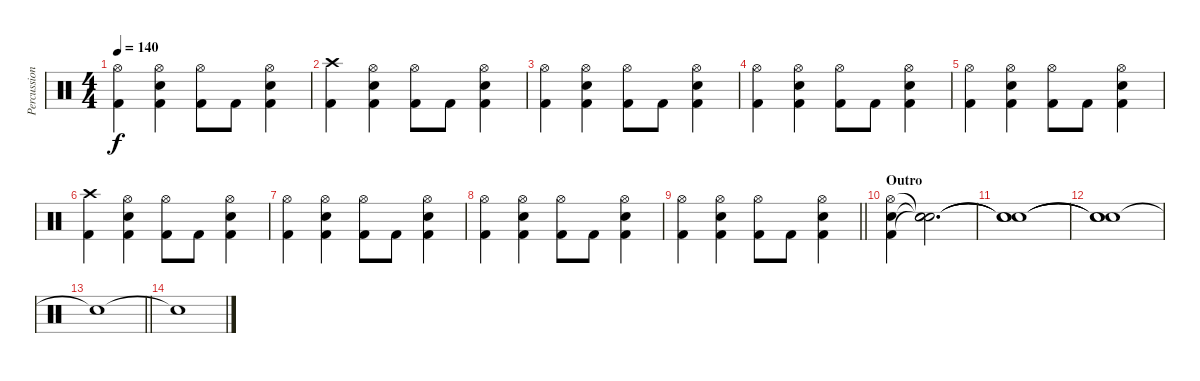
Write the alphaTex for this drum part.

\track ("Percussions" "Percussion") {instrument percussion}
\staff {score}
\articulation defaults
\ts (4 4)
\tempo 140
\clef neutral
\ks c
("Hi-Hat (open)" "Kick (hit) 2").4{dy f} ("Hi-Hat (open)" "Electric Snare (hit)" "Kick (hit) 2").4 ("Hi-Hat (open)" "Kick (hit) 2").8 "Kick (hit) 2".8 ("Hi-Hat (open)" "Electric Snare (hit)" "Kick (hit) 2").4 |
("Crash high (hit)" "Kick (hit) 2").4 ("Hi-Hat (open)" "Electric Snare (hit)" "Kick (hit) 2").4 ("Hi-Hat (open)" "Kick (hit) 2").8 "Kick (hit) 2".8 ("Hi-Hat (open)" "Electric Snare (hit)" "Kick (hit) 2").4 |
("Hi-Hat (open)" "Kick (hit) 2").4 ("Hi-Hat (open)" "Electric Snare (hit)" "Kick (hit) 2").4 ("Hi-Hat (open)" "Kick (hit) 2").8 "Kick (hit) 2".8 ("Hi-Hat (open)" "Electric Snare (hit)" "Kick (hit) 2").4 |
("Hi-Hat (open)" "Kick (hit) 2").4 ("Hi-Hat (open)" "Electric Snare (hit)" "Kick (hit) 2").4 ("Hi-Hat (open)" "Kick (hit) 2").8 "Kick (hit) 2".8 ("Hi-Hat (open)" "Electric Snare (hit)" "Kick (hit) 2").4 |
("Hi-Hat (open)" "Kick (hit) 2").4 ("Hi-Hat (open)" "Electric Snare (hit)" "Kick (hit) 2").4 ("Hi-Hat (open)" "Kick (hit) 2").8 "Kick (hit) 2".8 ("Hi-Hat (open)" "Electric Snare (hit)" "Kick (hit) 2").4 |
("Crash high (hit)" "Kick (hit) 2").4 ("Hi-Hat (open)" "Electric Snare (hit)" "Kick (hit) 2").4 ("Hi-Hat (open)" "Kick (hit) 2").8 "Kick (hit) 2".8 ("Hi-Hat (open)" "Electric Snare (hit)" "Kick (hit) 2").4 |
("Hi-Hat (open)" "Kick (hit) 2").4 ("Hi-Hat (open)" "Electric Snare (hit)" "Kick (hit) 2").4 ("Hi-Hat (open)" "Kick (hit) 2").8 "Kick (hit) 2".8 ("Hi-Hat (open)" "Electric Snare (hit)" "Kick (hit) 2").4 |
("Hi-Hat (open)" "Kick (hit) 2").4 ("Hi-Hat (open)" "Electric Snare (hit)" "Kick (hit) 2").4 ("Hi-Hat (open)" "Kick (hit) 2").8 "Kick (hit) 2".8 ("Hi-Hat (open)" "Electric Snare (hit)" "Kick (hit) 2").4 |
\barLineRight lightlight
("Hi-Hat (open)" "Kick (hit) 2").4 ("Hi-Hat (open)" "Electric Snare (hit)" "Kick (hit) 2").4 ("Hi-Hat (open)" "Kick (hit) 2").8 "Kick (hit) 2".8 ("Hi-Hat (open)" "Electric Snare (hit)" "Kick (hit) 2").4 |
\section ("" "Outro")
("Hi-Hat (open)" "Electric Snare (hit)" "Kick (hit) 2").4 ("Snare (hit)"{t} "Snare (hit)"{t} "Snare (hit)"{t}).2{d} |
("Snare (hit)"{t} "Snare (hit)"{t} "Snare (hit)"{t}).1 |
("Snare (hit)"{t} "Snare (hit)"{t} "Snare (hit)"{t}).1 |
\barLineRight lightlight "Snare (hit)"{t}.1
|
"Snare (hit)"{t}.1
